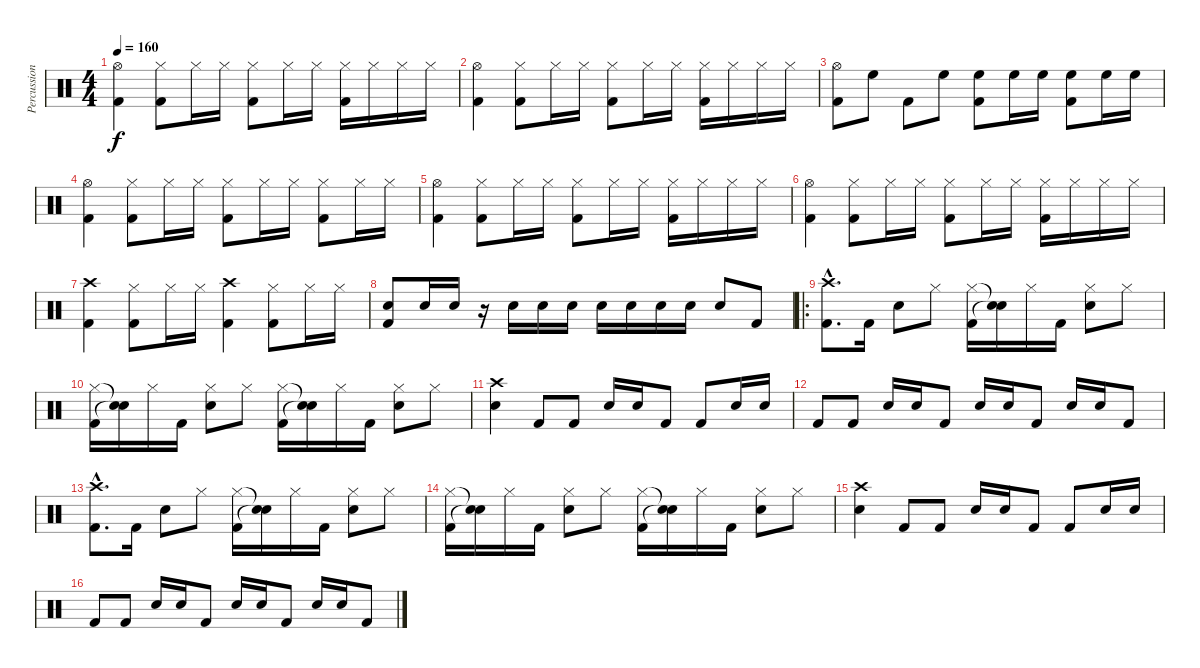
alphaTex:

\track ("Percussion" "Percussion") {instrument percussion}
\staff {score}
\articulation defaults
\ts (4 4)
\tempo 160
\clef neutral
\ks c
("Hi-Hat (open)" "Kick (hit) 2").4{dy f} ("Hi-Hat (closed)" "Kick (hit) 2").8 "Hi-Hat (closed)".16 "Hi-Hat (closed)".16 ("Hi-Hat (closed)" "Kick (hit) 2").8 "Hi-Hat (closed)".16 "Hi-Hat (closed)".16 ("Hi-Hat (closed)" "Kick (hit) 2").16 "Hi-Hat (closed)".16 "Hi-Hat (closed)".16 "Hi-Hat (closed)".16 |
("Hi-Hat (open)" "Kick (hit) 2").4 ("Hi-Hat (closed)" "Kick (hit) 2").8 "Hi-Hat (closed)".16 "Hi-Hat (closed)".16 ("Hi-Hat (closed)" "Kick (hit) 2").8 "Hi-Hat (closed)".16 "Hi-Hat (closed)".16 ("Hi-Hat (closed)" "Kick (hit) 2").16 "Hi-Hat (closed)".16 "Hi-Hat (closed)".16 "Hi-Hat (closed)".16 |
("Hi-Hat (open)" "Kick (hit) 2").8 "High Floor Tom (hit)".8 "Kick (hit) 2".8 "High Floor Tom (hit)".8 ("High Floor Tom (hit)" "Kick (hit) 2").8 "High Floor Tom (hit)".16 "High Floor Tom (hit)".16 ("High Floor Tom (hit)" "Kick (hit) 2").8 "High Floor Tom (hit)".16 "High Floor Tom (hit)".16 |
("Hi-Hat (open)" "Kick (hit) 2").4 ("Hi-Hat (closed)" "Kick (hit) 2").8 "Hi-Hat (closed)".16 "Hi-Hat (closed)".16 ("Hi-Hat (closed)" "Kick (hit) 2").8 "Hi-Hat (closed)".16 "Hi-Hat (closed)".16 ("Hi-Hat (closed)" "Kick (hit) 2").8 "Hi-Hat (closed)".16 "Hi-Hat (closed)".16 |
("Hi-Hat (open)" "Kick (hit) 2").4 ("Hi-Hat (closed)" "Kick (hit) 2").8 "Hi-Hat (closed)".16 "Hi-Hat (closed)".16 ("Hi-Hat (closed)" "Kick (hit) 2").8 "Hi-Hat (closed)".16 "Hi-Hat (closed)".16 ("Hi-Hat (closed)" "Kick (hit) 2").16 "Hi-Hat (closed)".16 "Hi-Hat (closed)".16 "Hi-Hat (closed)".16 |
("Hi-Hat (open)" "Kick (hit) 2").4 ("Hi-Hat (closed)" "Kick (hit) 2").8 "Hi-Hat (closed)".16 "Hi-Hat (closed)".16 ("Hi-Hat (closed)" "Kick (hit) 2").8 "Hi-Hat (closed)".16 "Hi-Hat (closed)".16 ("Hi-Hat (closed)" "Kick (hit) 2").16 "Hi-Hat (closed)".16 "Hi-Hat (closed)".16 "Hi-Hat (closed)".16 |
("Crash high (hit)" "Kick (hit) 2").4 ("Hi-Hat (closed)" "Kick (hit) 2").8 "Hi-Hat (closed)".16 "Hi-Hat (closed)".16 ("Crash high (hit)" "Kick (hit) 2").4 ("Hi-Hat (closed)" "Kick (hit) 2").8 "Hi-Hat (closed)".16 "Hi-Hat (closed)".16 |
("Snare (hit) 2" "Kick (hit) 2").8 "Snare (hit) 2".16 "Snare (hit) 2".16 r.16 "Snare (hit) 2".16 "Snare (hit) 2".16 "Snare (hit) 2".16 "Snare (hit) 2".16 "Snare (hit) 2".16 "Snare (hit) 2".16 "Snare (hit) 2".16 "Snare (hit) 2".8 "Kick (hit) 2".8 |
\ro
("Crash high (hit)"{hac} "Kick (hit) 2"{hac}).8{d} "Kick (hit) 2".16 "Snare (hit) 2".8 "Hi-Hat (closed)".8 ("Hi-Hat (closed)" "Kick (hit) 2").16 ("Snare (hit)"{t} "Snare (hit)"{t}).16 "Hi-Hat (closed)".16 "Kick (hit) 2".16 ("Hi-Hat (closed)" "Snare (hit) 2").8 "Hi-Hat (closed)".8 |
("Hi-Hat (closed)" "Kick (hit) 2").16 ("Snare (hit)"{t} "Snare (hit)"{t}).16 "Hi-Hat (closed)".16 "Kick (hit) 2".16 ("Hi-Hat (closed)" "Snare (hit) 2").8 "Hi-Hat (closed)".8 ("Hi-Hat (closed)" "Kick (hit) 2").16 ("Snare (hit)"{t} "Snare (hit)"{t}).16 "Hi-Hat (closed)".16 "Kick (hit) 2".16 ("Hi-Hat (closed)" "Snare (hit) 2").8 "Hi-Hat (closed)".8 |
("Crash high (hit)" "Snare (hit) 2").4 "Kick (hit) 2".8 "Kick (hit) 2".8 "Snare (hit) 2".16 "Snare (hit) 2".16 "Kick (hit) 2".8 "Kick (hit) 2".8 "Snare (hit) 2".16 "Snare (hit) 2".16 |
"Kick (hit) 2".8 "Kick (hit) 2".8 "Snare (hit) 2".16 "Snare (hit) 2".16 "Kick (hit) 2".8 "Snare (hit) 2".16 "Snare (hit) 2".16 "Kick (hit) 2".8 "Snare (hit) 2".16 "Snare (hit) 2".16 "Kick (hit) 2".8 |
("Crash high (hit)"{hac} "Kick (hit) 2"{hac}).8{d} "Kick (hit) 2".16 "Snare (hit) 2".8 "Hi-Hat (closed)".8 ("Hi-Hat (closed)" "Kick (hit) 2").16 ("Snare (hit)"{t} "Snare (hit)"{t}).16 "Hi-Hat (closed)".16 "Kick (hit) 2".16 ("Hi-Hat (closed)" "Snare (hit) 2").8 "Hi-Hat (closed)".8 |
("Hi-Hat (closed)" "Kick (hit) 2").16 ("Snare (hit)"{t} "Snare (hit)"{t}).16 "Hi-Hat (closed)".16 "Kick (hit) 2".16 ("Hi-Hat (closed)" "Snare (hit) 2").8 "Hi-Hat (closed)".8 ("Hi-Hat (closed)" "Kick (hit) 2").16 ("Snare (hit)"{t} "Snare (hit)"{t}).16 "Hi-Hat (closed)".16 "Kick (hit) 2".16 ("Hi-Hat (closed)" "Snare (hit) 2").8 "Hi-Hat (closed)".8 |
("Crash high (hit)" "Snare (hit) 2").4 "Kick (hit) 2".8 "Kick (hit) 2".8 "Snare (hit) 2".16 "Snare (hit) 2".16 "Kick (hit) 2".8 "Kick (hit) 2".8 "Snare (hit) 2".16 "Snare (hit) 2".16 |
"Kick (hit) 2".8 "Kick (hit) 2".8 "Snare (hit) 2".16 "Snare (hit) 2".16 "Kick (hit) 2".8 "Snare (hit) 2".16 "Snare (hit) 2".16 "Kick (hit) 2".8 "Snare (hit) 2".16 "Snare (hit) 2".16 "Kick (hit) 2".8
